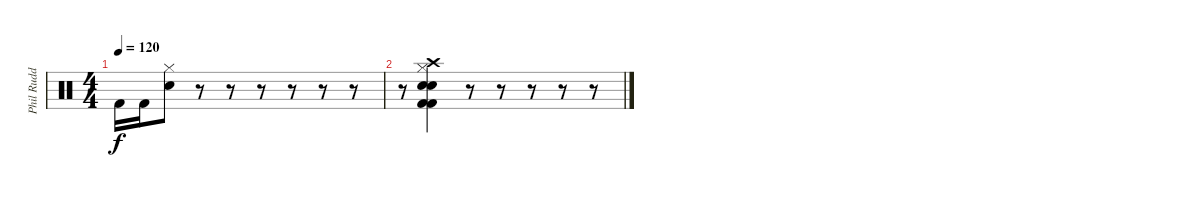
\track ("Phil Rudd" "Phil Rudd") {instrument percussion}
\staff {score}
\articulation defaults
\ts (4 4)
\tempo 120
\clef neutral
\ks c "Kick (hit) 2".16{dy f} "Kick (hit) 2".16
("Hi-Hat (closed)" "Snare (hit) 2").8 r.8 r.8 r.8 r.8 r.8 r.8 |
r.8 ("Snare (hit) 2" "Hi-Hat (closed)" "Crash high (hit)" "Kick (hit) 2" "Snare (hit) 2" "Kick (hit) 2").4 r.8 r.8 r.8 r.8 r.8
